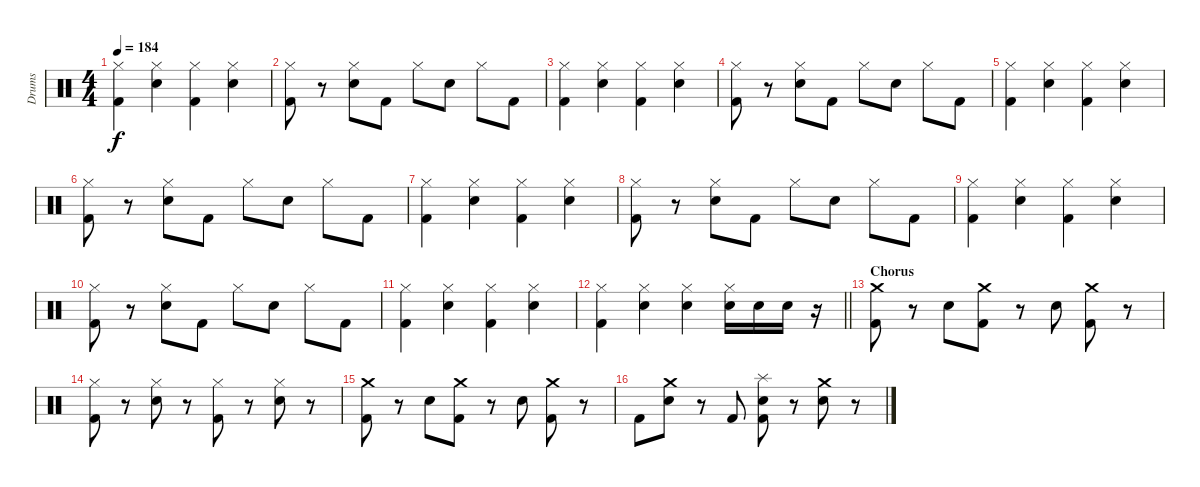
\track ("Drums" "Drums") {instrument percussion}
\staff {score}
\articulation defaults
\ts (4 4)
\tempo 184
\clef neutral
\ks c
("Hi-Hat (closed)" "Kick (hit) 2").4{dy f} ("Hi-Hat (closed)" "Snare (hit) 2").4 ("Hi-Hat (closed)" "Kick (hit) 2").4 ("Hi-Hat (closed)" "Snare (hit) 2").4 |
("Hi-Hat (closed)" "Kick (hit) 2").8 r.8 ("Hi-Hat (closed)" "Snare (hit) 2").8 "Kick (hit) 2".8 "Hi-Hat (closed)".8 "Snare (hit) 2".8 "Hi-Hat (closed)".8 "Kick (hit) 2".8 |
("Hi-Hat (closed)" "Kick (hit) 2").4 ("Hi-Hat (closed)" "Snare (hit) 2").4 ("Hi-Hat (closed)" "Kick (hit) 2").4 ("Hi-Hat (closed)" "Snare (hit) 2").4 |
("Hi-Hat (closed)" "Kick (hit) 2").8 r.8 ("Hi-Hat (closed)" "Snare (hit) 2").8 "Kick (hit) 2".8 "Hi-Hat (closed)".8 "Snare (hit) 2".8 "Hi-Hat (closed)".8 "Kick (hit) 2".8 |
("Hi-Hat (closed)" "Kick (hit) 2").4 ("Hi-Hat (closed)" "Snare (hit) 2").4 ("Hi-Hat (closed)" "Kick (hit) 2").4 ("Hi-Hat (closed)" "Snare (hit) 2").4 |
("Hi-Hat (closed)" "Kick (hit) 2").8 r.8 ("Hi-Hat (closed)" "Snare (hit) 2").8 "Kick (hit) 2".8 "Hi-Hat (closed)".8 "Snare (hit) 2".8 "Hi-Hat (closed)".8 "Kick (hit) 2".8 |
("Hi-Hat (closed)" "Kick (hit) 2").4 ("Hi-Hat (closed)" "Snare (hit) 2").4 ("Hi-Hat (closed)" "Kick (hit) 2").4 ("Hi-Hat (closed)" "Snare (hit) 2").4 |
("Hi-Hat (closed)" "Kick (hit) 2").8 r.8 ("Hi-Hat (closed)" "Snare (hit) 2").8 "Kick (hit) 2".8 "Hi-Hat (closed)".8 "Snare (hit) 2".8 "Hi-Hat (closed)".8 "Kick (hit) 2".8 |
("Hi-Hat (closed)" "Kick (hit) 2").4 ("Hi-Hat (closed)" "Snare (hit) 2").4 ("Hi-Hat (closed)" "Kick (hit) 2").4 ("Hi-Hat (closed)" "Snare (hit) 2").4 |
("Hi-Hat (closed)" "Kick (hit) 2").8 r.8 ("Hi-Hat (closed)" "Snare (hit) 2").8 "Kick (hit) 2".8 "Hi-Hat (closed)".8 "Snare (hit) 2".8 "Hi-Hat (closed)".8 "Kick (hit) 2".8 |
("Hi-Hat (closed)" "Kick (hit) 2").4 ("Hi-Hat (closed)" "Snare (hit) 2").4 ("Hi-Hat (closed)" "Kick (hit) 2").4 ("Hi-Hat (closed)" "Snare (hit) 2").4 |
\barLineRight lightlight
("Hi-Hat (closed)" "Kick (hit) 2").4 ("Hi-Hat (closed)" "Snare (hit) 2").4 ("Hi-Hat (closed)" "Snare (hit) 2").4 ("Hi-Hat (closed)" "Snare (hit) 2").16 "Snare (hit) 2".16 "Snare (hit) 2".16 r.16 |
\section ("" "Chorus")
("Crash medium (hit)" "Kick (hit) 2").8 r.8 "Snare (hit) 2".8 ("Crash medium (hit)" "Kick (hit) 2").8 r.8 "Snare (hit) 2".8 ("Crash medium (hit)" "Kick (hit) 2").8 r.8 |
("Hi-Hat (closed)" "Kick (hit) 2").8 r.8 ("Hi-Hat (closed)" "Snare (hit) 2").8 r.8 ("Hi-Hat (closed)" "Kick (hit) 2").8 r.8 ("Hi-Hat (closed)" "Snare (hit) 2").8 r.8 |
("Crash medium (hit)" "Kick (hit) 2").8 r.8 "Snare (hit) 2".8 ("Crash medium (hit)" "Kick (hit) 2").8 r.8 "Snare (hit) 2".8 ("Crash medium (hit)" "Kick (hit) 2").8 r.8 |
"Kick (hit) 2".8 ("Crash medium (hit)" "Snare (hit) 2").8 r.8 "Kick (hit) 2".8 ("Splash (hit)" "Snare (hit) 2" "Kick (hit) 2").8 r.8 ("Crash medium (hit)" "Snare (hit) 2").8 r.8
